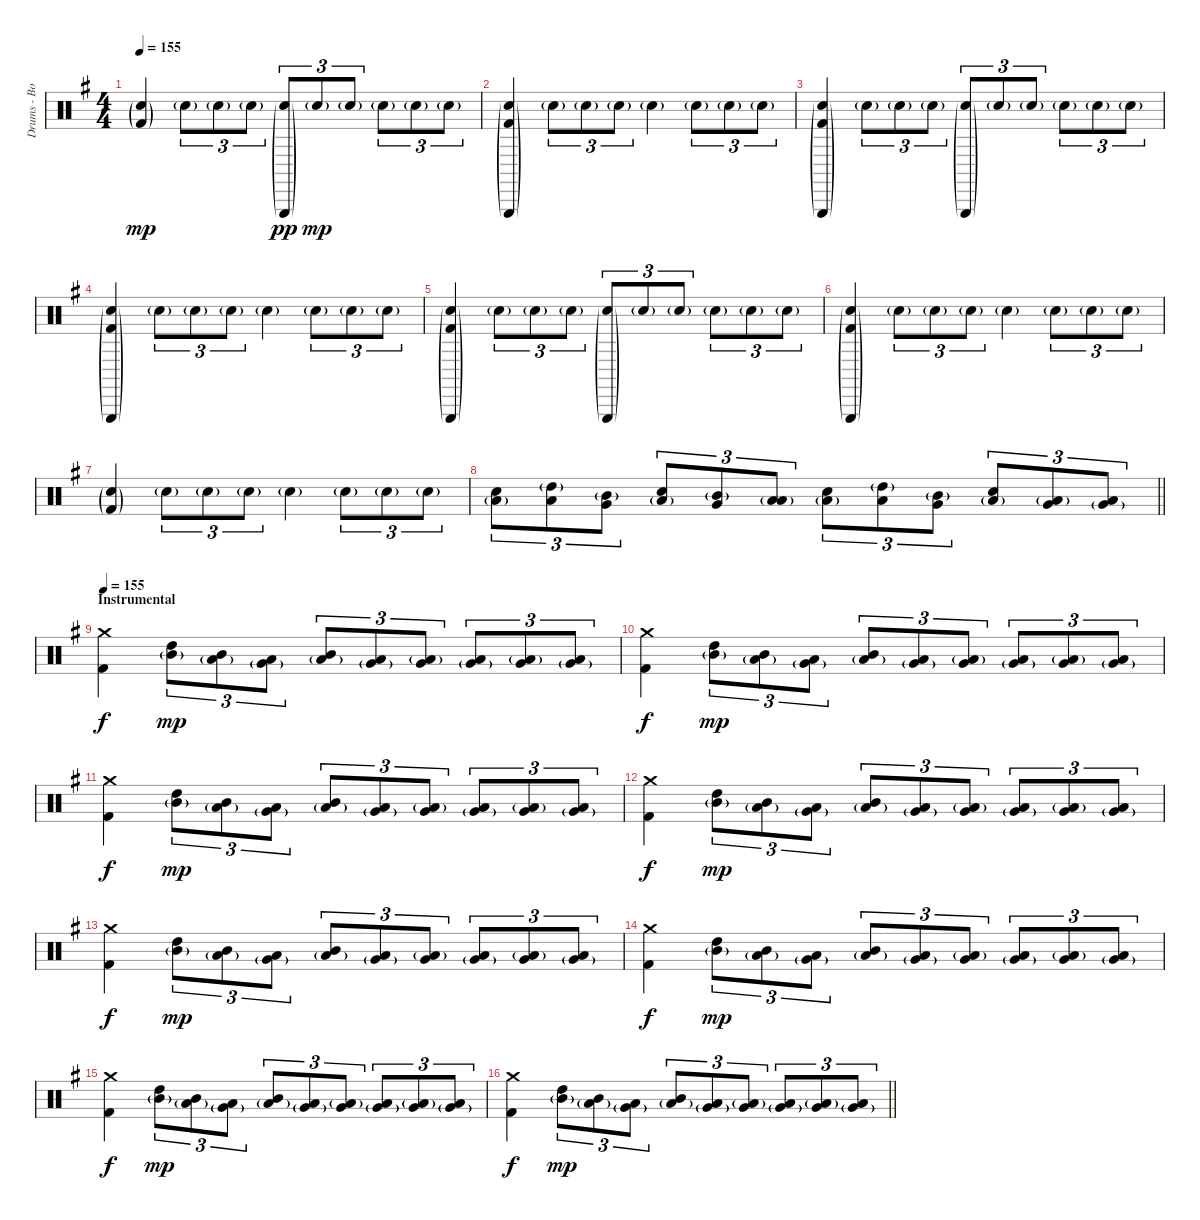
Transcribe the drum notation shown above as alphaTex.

\track ("Drums - Bob Bryar" "Drums - Bo") {instrument percussion}
\staff {score}
\articulation defaults
\ts (4 4)
\tempo 155
\clef neutral
\ks eminor
("Electric Snare (hit)"{g} "Kick (hit) 2"{g}).4{dy mp} "Electric Snare (hit)"{g}.8{tu (3 2)} "Electric Snare (hit)"{g}.8{tu (3 2)} "Electric Snare (hit)"{g}.8{tu (3 2)} ("Electric Snare (hit)"{g} "Triangle (hit)"{g}).8{tu (3 2) dy pp} "Electric Snare (hit)"{g}.8{tu (3 2) dy mp} "Electric Snare (hit)"{g}.8{tu (3 2)} "Electric Snare (hit)"{g}.8{tu (3 2)} "Electric Snare (hit)"{g}.8{tu (3 2)} "Electric Snare (hit)"{g}.8{tu (3 2)} |
("Electric Snare (hit)"{g} "Kick (hit) 2"{g} "Triangle (hit)"{g}).4 "Electric Snare (hit)"{g}.8{tu (3 2)} "Electric Snare (hit)"{g}.8{tu (3 2)} "Electric Snare (hit)"{g}.8{tu (3 2)} "Electric Snare (hit)"{g}.4 "Electric Snare (hit)"{g}.8{tu (3 2)} "Electric Snare (hit)"{g}.8{tu (3 2)} "Electric Snare (hit)"{g}.8{tu (3 2)} |
("Electric Snare (hit)"{g} "Kick (hit) 2"{g} "Triangle (hit)"{g}).4 "Electric Snare (hit)"{g}.8{tu (3 2)} "Electric Snare (hit)"{g}.8{tu (3 2)} "Electric Snare (hit)"{g}.8{tu (3 2)} ("Electric Snare (hit)"{g} "Triangle (hit)"{g}).8{tu (3 2)} "Electric Snare (hit)"{g}.8{tu (3 2)} "Electric Snare (hit)"{g}.8{tu (3 2)} "Electric Snare (hit)"{g}.8{tu (3 2)} "Electric Snare (hit)"{g}.8{tu (3 2)} "Electric Snare (hit)"{g}.8{tu (3 2)} |
("Electric Snare (hit)"{g} "Kick (hit) 2"{g} "Triangle (hit)"{g}).4 "Electric Snare (hit)"{g}.8{tu (3 2)} "Electric Snare (hit)"{g}.8{tu (3 2)} "Electric Snare (hit)"{g}.8{tu (3 2)} "Electric Snare (hit)"{g}.4 "Electric Snare (hit)"{g}.8{tu (3 2)} "Electric Snare (hit)"{g}.8{tu (3 2)} "Electric Snare (hit)"{g}.8{tu (3 2)} |
("Electric Snare (hit)"{g} "Kick (hit) 2"{g} "Triangle (hit)"{g}).4 "Electric Snare (hit)"{g}.8{tu (3 2)} "Electric Snare (hit)"{g}.8{tu (3 2)} "Electric Snare (hit)"{g}.8{tu (3 2)} ("Electric Snare (hit)"{g} "Triangle (hit)"{g}).8{tu (3 2)} "Electric Snare (hit)"{g}.8{tu (3 2)} "Electric Snare (hit)"{g}.8{tu (3 2)} "Electric Snare (hit)"{g}.8{tu (3 2)} "Electric Snare (hit)"{g}.8{tu (3 2)} "Electric Snare (hit)"{g}.8{tu (3 2)} |
("Electric Snare (hit)"{g} "Kick (hit) 2"{g} "Triangle (hit)"{g}).4 "Electric Snare (hit)"{g}.8{tu (3 2)} "Electric Snare (hit)"{g}.8{tu (3 2)} "Electric Snare (hit)"{g}.8{tu (3 2)} "Electric Snare (hit)"{g}.4 "Electric Snare (hit)"{g}.8{tu (3 2)} "Electric Snare (hit)"{g}.8{tu (3 2)} "Electric Snare (hit)"{g}.8{tu (3 2)} |
("Electric Snare (hit)"{g} "Kick (hit) 2"{g}).4 "Electric Snare (hit)"{g}.8{tu (3 2)} "Electric Snare (hit)"{g}.8{tu (3 2)} "Electric Snare (hit)"{g}.8{tu (3 2)} "Electric Snare (hit)"{g}.4 "Electric Snare (hit)"{g}.8{tu (3 2)} "Electric Snare (hit)"{g}.8{tu (3 2)} "Electric Snare (hit)"{g}.8{tu (3 2)} |
\barLineRight lightlight
("Electric Snare (hit)" "Low Floor Tom (hit)"{g}).8{tu (3 2)} ("Low Tom (hit)" "High Tom (hit)"{g}).8{tu (3 2)} ("Very Low Tom (hit)" "Mid Tom (hit)"{g}).8{tu (3 2)} ("Electric Snare (hit)" "Low Floor Tom (hit)"{g}).8{tu (3 2)} ("Very Low Tom (hit)" "Mid Tom (hit)"{g}).8{tu (3 2)} ("Low Floor Tom (hit)" "Low Tom (hit)"{g}).8{tu (3 2)} ("Electric Snare (hit)" "Low Floor Tom (hit)"{g}).8{tu (3 2)} ("Low Tom (hit)" "High Tom (hit)"{g}).8{tu (3 2)} ("Very Low Tom (hit)" "Mid Tom (hit)"{g}).8{tu (3 2)} ("Electric Snare (hit)" "Low Floor Tom (hit)"{g}).8{tu (3 2)} ("Very Low Tom (hit)" "Low Tom (hit)"{g}).8{tu (3 2)} ("Low Floor Tom (hit)" "Very Low Tom (hit)"{g}).8{tu (3 2)} |
\section ("" "Instrumental")
\tempo 155
("Kick (hit) 2" "Crash medium (hit)").4{dy f} ("High Tom (hit)" "Mid Tom (hit)"{g}).8{tu (3 2) dy mp} ("Mid Tom (hit)" "Low Tom (hit)"{g}).8{tu (3 2)} ("Low Tom (hit)" "Very Low Tom (hit)"{g}).8{tu (3 2)} ("Mid Tom (hit)" "Low Tom (hit)"{g}).8{tu (3 2)} ("Low Tom (hit)" "Very Low Tom (hit)"{g}).8{tu (3 2)} ("Very Low Tom (hit)" "Low Floor Tom (hit)"{g}).8{tu (3 2)} ("Low Tom (hit)" "Very Low Tom (hit)"{g}).8{tu (3 2)} ("Very Low Tom (hit)" "Low Floor Tom (hit)"{g}).8{tu (3 2)} ("Low Floor Tom (hit)" "Very Low Tom (hit)"{g}).8{tu (3 2)} |
("Kick (hit) 2" "Crash medium (hit)").4{dy f} ("High Tom (hit)" "Mid Tom (hit)"{g}).8{tu (3 2) dy mp} ("Mid Tom (hit)" "Low Tom (hit)"{g}).8{tu (3 2)} ("Low Tom (hit)" "Very Low Tom (hit)"{g}).8{tu (3 2)} ("Mid Tom (hit)" "Low Tom (hit)"{g}).8{tu (3 2)} ("Low Tom (hit)" "Very Low Tom (hit)"{g}).8{tu (3 2)} ("Very Low Tom (hit)" "Low Floor Tom (hit)"{g}).8{tu (3 2)} ("Low Tom (hit)" "Very Low Tom (hit)"{g}).8{tu (3 2)} ("Very Low Tom (hit)" "Low Floor Tom (hit)"{g}).8{tu (3 2)} ("Low Floor Tom (hit)" "Very Low Tom (hit)"{g}).8{tu (3 2)} |
("Kick (hit) 2" "Crash medium (hit)").4{dy f} ("High Tom (hit)" "Mid Tom (hit)"{g}).8{tu (3 2) dy mp} ("Mid Tom (hit)" "Low Tom (hit)"{g}).8{tu (3 2)} ("Low Tom (hit)" "Very Low Tom (hit)"{g}).8{tu (3 2)} ("Mid Tom (hit)" "Low Tom (hit)"{g}).8{tu (3 2)} ("Low Tom (hit)" "Very Low Tom (hit)"{g}).8{tu (3 2)} ("Very Low Tom (hit)" "Low Floor Tom (hit)"{g}).8{tu (3 2)} ("Low Tom (hit)" "Very Low Tom (hit)"{g}).8{tu (3 2)} ("Very Low Tom (hit)" "Low Floor Tom (hit)"{g}).8{tu (3 2)} ("Low Floor Tom (hit)" "Very Low Tom (hit)"{g}).8{tu (3 2)} |
("Kick (hit) 2" "Crash medium (hit)").4{dy f} ("High Tom (hit)" "Mid Tom (hit)"{g}).8{tu (3 2) dy mp} ("Mid Tom (hit)" "Low Tom (hit)"{g}).8{tu (3 2)} ("Low Tom (hit)" "Very Low Tom (hit)"{g}).8{tu (3 2)} ("Mid Tom (hit)" "Low Tom (hit)"{g}).8{tu (3 2)} ("Low Tom (hit)" "Very Low Tom (hit)"{g}).8{tu (3 2)} ("Very Low Tom (hit)" "Low Floor Tom (hit)"{g}).8{tu (3 2)} ("Low Tom (hit)" "Very Low Tom (hit)"{g}).8{tu (3 2)} ("Very Low Tom (hit)" "Low Floor Tom (hit)"{g}).8{tu (3 2)} ("Low Floor Tom (hit)" "Very Low Tom (hit)"{g}).8{tu (3 2)} |
("Kick (hit) 2" "Crash medium (hit)").4{dy f} ("High Tom (hit)" "Mid Tom (hit)"{g}).8{tu (3 2) dy mp} ("Mid Tom (hit)" "Low Tom (hit)"{g}).8{tu (3 2)} ("Low Tom (hit)" "Very Low Tom (hit)"{g}).8{tu (3 2)} ("Mid Tom (hit)" "Low Tom (hit)"{g}).8{tu (3 2)} ("Low Tom (hit)" "Very Low Tom (hit)"{g}).8{tu (3 2)} ("Very Low Tom (hit)" "Low Floor Tom (hit)"{g}).8{tu (3 2)} ("Low Tom (hit)" "Very Low Tom (hit)"{g}).8{tu (3 2)} ("Very Low Tom (hit)" "Low Floor Tom (hit)"{g}).8{tu (3 2)} ("Low Floor Tom (hit)" "Very Low Tom (hit)"{g}).8{tu (3 2)} |
("Kick (hit) 2" "Crash medium (hit)").4{dy f} ("High Tom (hit)" "Mid Tom (hit)"{g}).8{tu (3 2) dy mp} ("Mid Tom (hit)" "Low Tom (hit)"{g}).8{tu (3 2)} ("Low Tom (hit)" "Very Low Tom (hit)"{g}).8{tu (3 2)} ("Mid Tom (hit)" "Low Tom (hit)"{g}).8{tu (3 2)} ("Low Tom (hit)" "Very Low Tom (hit)"{g}).8{tu (3 2)} ("Very Low Tom (hit)" "Low Floor Tom (hit)"{g}).8{tu (3 2)} ("Low Tom (hit)" "Very Low Tom (hit)"{g}).8{tu (3 2)} ("Very Low Tom (hit)" "Low Floor Tom (hit)"{g}).8{tu (3 2)} ("Low Floor Tom (hit)" "Very Low Tom (hit)"{g}).8{tu (3 2)} |
("Kick (hit) 2" "Crash medium (hit)").4{dy f} ("High Tom (hit)" "Mid Tom (hit)"{g}).8{tu (3 2) dy mp} ("Mid Tom (hit)" "Low Tom (hit)"{g}).8{tu (3 2)} ("Low Tom (hit)" "Very Low Tom (hit)"{g}).8{tu (3 2)} ("Mid Tom (hit)" "Low Tom (hit)"{g}).8{tu (3 2)} ("Low Tom (hit)" "Very Low Tom (hit)"{g}).8{tu (3 2)} ("Very Low Tom (hit)" "Low Floor Tom (hit)"{g}).8{tu (3 2)} ("Low Tom (hit)" "Very Low Tom (hit)"{g}).8{tu (3 2)} ("Very Low Tom (hit)" "Low Floor Tom (hit)"{g}).8{tu (3 2)} ("Low Floor Tom (hit)" "Very Low Tom (hit)"{g}).8{tu (3 2)} |
\barLineRight lightlight
("Kick (hit) 2" "Crash medium (hit)").4{dy f} ("High Tom (hit)" "Mid Tom (hit)"{g}).8{tu (3 2) dy mp} ("Mid Tom (hit)" "Low Tom (hit)"{g}).8{tu (3 2)} ("Low Tom (hit)" "Very Low Tom (hit)"{g}).8{tu (3 2)} ("Mid Tom (hit)" "Low Tom (hit)"{g}).8{tu (3 2)} ("Low Tom (hit)" "Very Low Tom (hit)"{g}).8{tu (3 2)} ("Very Low Tom (hit)" "Low Floor Tom (hit)"{g}).8{tu (3 2)} ("Low Tom (hit)" "Very Low Tom (hit)"{g}).8{tu (3 2)} ("Very Low Tom (hit)" "Low Floor Tom (hit)"{g}).8{tu (3 2)} ("Low Floor Tom (hit)" "Very Low Tom (hit)"{g}).8{tu (3 2)}
